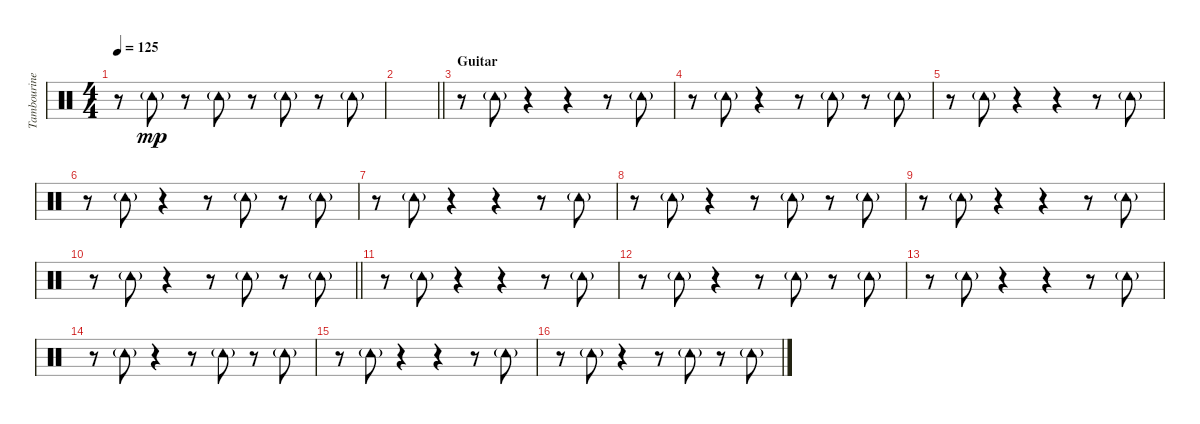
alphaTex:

\track ("Tambourine" "Tambourine") {instrument percussion}
\staff {score}
\articulation defaults
\ts (4 4)
\tempo 125
\clef neutral
\ks c
r.8{dy mp} "Tambourine (hit)"{g}.8 r.8 "Tambourine (hit)"{g}.8 r.8 "Tambourine (hit)"{g}.8 r.8 "Tambourine (hit)"{g}.8 |
\barLineRight lightlight
|
\section ("" "Guitar")
r.8 "Tambourine (hit)"{g}.8 r.4 r.4 r.8 "Tambourine (hit)"{g}.8 |
r.8 "Tambourine (hit)"{g}.8 r.4 r.8 "Tambourine (hit)"{g}.8 r.8 "Tambourine (hit)"{g}.8 |
r.8 "Tambourine (hit)"{g}.8 r.4 r.4 r.8 "Tambourine (hit)"{g}.8 |
r.8 "Tambourine (hit)"{g}.8 r.4 r.8 "Tambourine (hit)"{g}.8 r.8 "Tambourine (hit)"{g}.8 |
r.8 "Tambourine (hit)"{g}.8 r.4 r.4 r.8 "Tambourine (hit)"{g}.8 |
r.8 "Tambourine (hit)"{g}.8 r.4 r.8 "Tambourine (hit)"{g}.8 r.8 "Tambourine (hit)"{g}.8 |
r.8 "Tambourine (hit)"{g}.8 r.4 r.4 r.8 "Tambourine (hit)"{g}.8 |
\barLineRight lightlight
r.8 "Tambourine (hit)"{g}.8 r.4 r.8 "Tambourine (hit)"{g}.8 r.8 "Tambourine (hit)"{g}.8 |
\section ("" "")
r.8 "Tambourine (hit)"{g}.8 r.4 r.4 r.8 "Tambourine (hit)"{g}.8 |
r.8 "Tambourine (hit)"{g}.8 r.4 r.8 "Tambourine (hit)"{g}.8 r.8 "Tambourine (hit)"{g}.8 |
r.8 "Tambourine (hit)"{g}.8 r.4 r.4 r.8 "Tambourine (hit)"{g}.8 |
r.8 "Tambourine (hit)"{g}.8 r.4 r.8 "Tambourine (hit)"{g}.8 r.8 "Tambourine (hit)"{g}.8 |
r.8 "Tambourine (hit)"{g}.8 r.4 r.4 r.8 "Tambourine (hit)"{g}.8 |
r.8 "Tambourine (hit)"{g}.8 r.4 r.8 "Tambourine (hit)"{g}.8 r.8 "Tambourine (hit)"{g}.8
